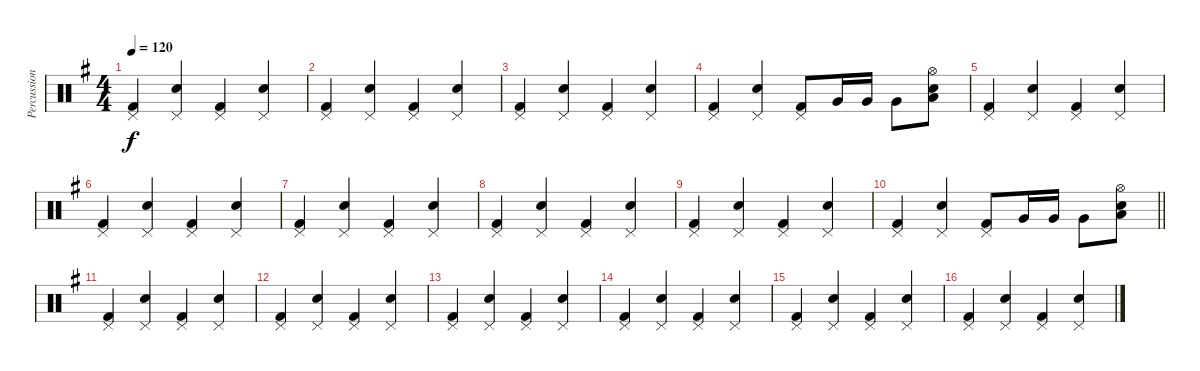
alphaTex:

\track ("Percussion" "Percussion") {instrument percussion}
\staff {score}
\articulation defaults
\ts (4 4)
\tempo 120
\clef neutral
\ks eminor
("Kick (hit) 2" "Pedal Hi-Hat (hit)").4{dy f} ("Snare (hit) 2" "Pedal Hi-Hat (hit)").4 ("Kick (hit) 2" "Pedal Hi-Hat (hit)").4 ("Snare (hit) 2" "Pedal Hi-Hat (hit)").4 |
("Kick (hit) 2" "Pedal Hi-Hat (hit)").4 ("Snare (hit) 2" "Pedal Hi-Hat (hit)").4 ("Kick (hit) 2" "Pedal Hi-Hat (hit)").4 ("Snare (hit) 2" "Pedal Hi-Hat (hit)").4 |
("Kick (hit) 2" "Pedal Hi-Hat (hit)").4 ("Snare (hit) 2" "Pedal Hi-Hat (hit)").4 ("Kick (hit) 2" "Pedal Hi-Hat (hit)").4 ("Snare (hit) 2" "Pedal Hi-Hat (hit)").4 |
("Kick (hit) 2" "Pedal Hi-Hat (hit)").4 ("Snare (hit) 2" "Pedal Hi-Hat (hit)").4 ("Kick (hit) 2" "Pedal Hi-Hat (hit)").8 "Very Low Tom (hit)".16 "Very Low Tom (hit)".16 "Very Low Tom (hit)".8 ("Snare (hit) 2" "Low Floor Tom (hit)" "Hi-Hat (open)").8 |
("Kick (hit) 2" "Pedal Hi-Hat (hit)").4 ("Snare (hit) 2" "Pedal Hi-Hat (hit)").4 ("Kick (hit) 2" "Pedal Hi-Hat (hit)").4 ("Snare (hit) 2" "Pedal Hi-Hat (hit)").4 |
("Kick (hit) 2" "Pedal Hi-Hat (hit)").4 ("Snare (hit) 2" "Pedal Hi-Hat (hit)").4 ("Kick (hit) 2" "Pedal Hi-Hat (hit)").4 ("Snare (hit) 2" "Pedal Hi-Hat (hit)").4 |
("Kick (hit) 2" "Pedal Hi-Hat (hit)").4 ("Snare (hit) 2" "Pedal Hi-Hat (hit)").4 ("Kick (hit) 2" "Pedal Hi-Hat (hit)").4 ("Snare (hit) 2" "Pedal Hi-Hat (hit)").4 |
("Kick (hit) 2" "Pedal Hi-Hat (hit)").4 ("Snare (hit) 2" "Pedal Hi-Hat (hit)").4 ("Kick (hit) 2" "Pedal Hi-Hat (hit)").4 ("Snare (hit) 2" "Pedal Hi-Hat (hit)").4 |
("Kick (hit) 2" "Pedal Hi-Hat (hit)").4 ("Snare (hit) 2" "Pedal Hi-Hat (hit)").4 ("Kick (hit) 2" "Pedal Hi-Hat (hit)").4 ("Snare (hit) 2" "Pedal Hi-Hat (hit)").4 |
\barLineRight lightlight
("Kick (hit) 2" "Pedal Hi-Hat (hit)").4 ("Snare (hit) 2" "Pedal Hi-Hat (hit)").4 ("Kick (hit) 2" "Pedal Hi-Hat (hit)").8 "Very Low Tom (hit)".16 "Very Low Tom (hit)".16 "Very Low Tom (hit)".8 ("Snare (hit) 2" "Low Floor Tom (hit)" "Hi-Hat (open)").8 |
("Kick (hit) 2" "Pedal Hi-Hat (hit)").4 ("Snare (hit) 2" "Pedal Hi-Hat (hit)").4 ("Kick (hit) 2" "Pedal Hi-Hat (hit)").4 ("Snare (hit) 2" "Pedal Hi-Hat (hit)").4 |
("Kick (hit) 2" "Pedal Hi-Hat (hit)").4 ("Snare (hit) 2" "Pedal Hi-Hat (hit)").4 ("Kick (hit) 2" "Pedal Hi-Hat (hit)").4 ("Snare (hit) 2" "Pedal Hi-Hat (hit)").4 |
("Kick (hit) 2" "Pedal Hi-Hat (hit)").4 ("Snare (hit) 2" "Pedal Hi-Hat (hit)").4 ("Kick (hit) 2" "Pedal Hi-Hat (hit)").4 ("Snare (hit) 2" "Pedal Hi-Hat (hit)").4 |
("Kick (hit) 2" "Pedal Hi-Hat (hit)").4 ("Snare (hit) 2" "Pedal Hi-Hat (hit)").4 ("Kick (hit) 2" "Pedal Hi-Hat (hit)").4 ("Snare (hit) 2" "Pedal Hi-Hat (hit)").4 |
("Kick (hit) 2" "Pedal Hi-Hat (hit)").4 ("Snare (hit) 2" "Pedal Hi-Hat (hit)").4 ("Kick (hit) 2" "Pedal Hi-Hat (hit)").4 ("Snare (hit) 2" "Pedal Hi-Hat (hit)").4 |
("Kick (hit) 2" "Pedal Hi-Hat (hit)").4 ("Snare (hit) 2" "Pedal Hi-Hat (hit)").4 ("Kick (hit) 2" "Pedal Hi-Hat (hit)").4 ("Snare (hit) 2" "Pedal Hi-Hat (hit)").4
